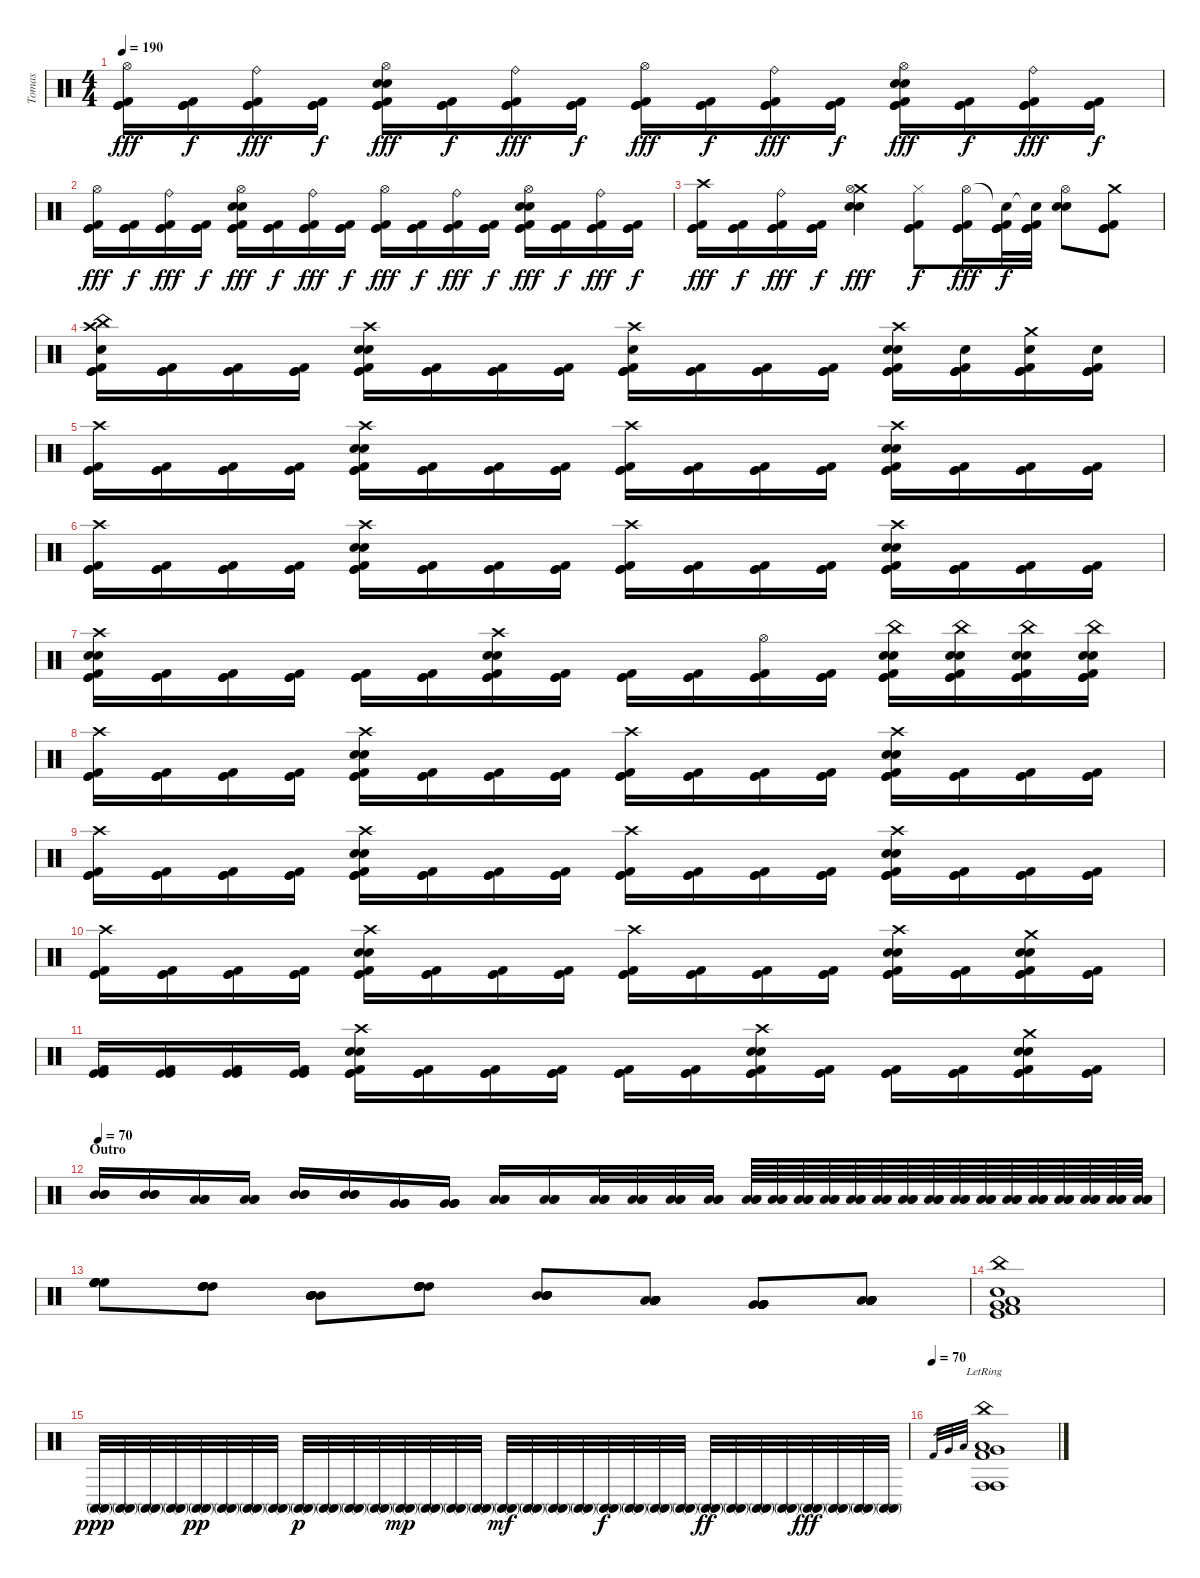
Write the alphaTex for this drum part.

\track ("Tomas" "Tomas") {instrument percussion}
\staff {score}
\articulation defaults
\ts (4 4)
\tempo 190
\clef neutral
\ks c
("Hi-Hat (open)" "Kick (hit)" "Kick (hit)" "Kick (hit) 2").16{dy fff} ("Kick (hit)" "Kick (hit)" "Kick (hit) 2").16{dy f} ("Ride (bell)" "Kick (hit)" "Kick (hit)" "Kick (hit) 2").16{dy fff} ("Kick (hit)" "Kick (hit)" "Kick (hit) 2").16{dy f} ("Hi-Hat (open)" "Kick (hit)" "Electric Snare (hit)" "Electric Snare (hit)" "Kick (hit)" "Kick (hit) 2").16{dy fff} ("Kick (hit)" "Kick (hit)" "Kick (hit) 2").16{dy f} ("Ride (bell)" "Kick (hit)" "Kick (hit)" "Kick (hit) 2").16{dy fff} ("Kick (hit)" "Kick (hit)" "Kick (hit) 2").16{dy f} ("Hi-Hat (open)" "Kick (hit)" "Kick (hit)" "Kick (hit) 2").16{dy fff} ("Kick (hit)" "Kick (hit)" "Kick (hit) 2").16{dy f} ("Ride (bell)" "Kick (hit)" "Kick (hit)" "Kick (hit) 2").16{dy fff} ("Kick (hit)" "Kick (hit)" "Kick (hit) 2").16{dy f} ("Hi-Hat (open)" "Kick (hit)" "Electric Snare (hit)" "Electric Snare (hit)" "Kick (hit)" "Kick (hit) 2").16{dy fff} ("Kick (hit)" "Kick (hit)" "Kick (hit) 2").16{dy f} ("Ride (bell)" "Kick (hit)" "Kick (hit)" "Kick (hit) 2").16{dy fff} ("Kick (hit)" "Kick (hit)" "Kick (hit) 2").16{dy f} |
("Hi-Hat (open)" "Kick (hit)" "Kick (hit)" "Kick (hit) 2").16{dy fff} ("Kick (hit)" "Kick (hit)" "Kick (hit) 2").16{dy f} ("Ride (bell)" "Kick (hit)" "Kick (hit)" "Kick (hit) 2").16{dy fff} ("Kick (hit)" "Kick (hit)" "Kick (hit) 2").16{dy f} ("Hi-Hat (open)" "Kick (hit)" "Electric Snare (hit)" "Electric Snare (hit)" "Kick (hit)" "Kick (hit) 2").16{dy fff} ("Kick (hit)" "Kick (hit)" "Kick (hit) 2").16{dy f} ("Ride (bell)" "Kick (hit)" "Kick (hit)" "Kick (hit) 2").16{dy fff} ("Kick (hit)" "Kick (hit)" "Kick (hit) 2").16{dy f} ("Hi-Hat (open)" "Kick (hit)" "Kick (hit)" "Kick (hit) 2").16{dy fff} ("Kick (hit)" "Kick (hit)" "Kick (hit) 2").16{dy f} ("Ride (bell)" "Kick (hit)" "Kick (hit)" "Kick (hit) 2").16{dy fff} ("Kick (hit)" "Kick (hit)" "Kick (hit) 2").16{dy f} ("Hi-Hat (open)" "Kick (hit)" "Electric Snare (hit)" "Electric Snare (hit)" "Kick (hit)" "Kick (hit) 2").16{dy fff} ("Kick (hit)" "Kick (hit)" "Kick (hit) 2").16{dy f} ("Ride (bell)" "Kick (hit)" "Kick (hit)" "Kick (hit) 2").16{dy fff} ("Kick (hit)" "Kick (hit)" "Kick (hit) 2").16{dy f} |
("Crash high (hit)" "Kick (hit)" "Kick (hit)" "Kick (hit) 2").16{dy fff} ("Kick (hit)" "Kick (hit)" "Kick (hit) 2").16{dy f} ("Ride (bell)" "Kick (hit)" "Kick (hit)" "Kick (hit) 2").16{dy fff} ("Kick (hit)" "Kick (hit)" "Kick (hit) 2").16{dy f} ("Crash medium (hit)" "Hi-Hat (open)" "Electric Snare (hit)" "Electric Snare (hit)").4{dy fff} ("Hi-Hat (closed)" "Kick (hit)" "Kick (hit)" "Kick (hit) 2").8{dy f} ("Hi-Hat (open)" "Kick (hit)" "Kick (hit)" "Kick (hit) 2").16{dy fff} ("Snare (hit)"{t} "Kick (hit)" "Kick (hit)" "Kick (hit)" "Kick (hit) 2").32{dy f} ("Snare (hit)"{t} "Kick (hit)" "Kick (hit)" "Kick (hit)" "Kick (hit) 2").32 ("Hi-Hat (open)" "Electric Snare (hit)" "Electric Snare (hit)").8 ("Crash medium (hit)" "Kick (hit)" "Kick (hit)" "Kick (hit) 2").8 |
("Crash high (hit)" "China (hit)" "Electric Snare (hit)" "Kick (hit)" "Kick (hit)" "Kick (hit) 2").16 ("Kick (hit)" "Kick (hit)" "Kick (hit) 2").16 ("Kick (hit)" "Kick (hit)" "Kick (hit) 2").16 ("Kick (hit)" "Kick (hit)" "Kick (hit) 2").16 ("Crash high (hit)" "Kick (hit)" "Electric Snare (hit)" "Electric Snare (hit)" "Kick (hit)" "Kick (hit) 2").16 ("Kick (hit)" "Kick (hit)" "Kick (hit) 2").16 ("Kick (hit)" "Kick (hit)" "Kick (hit) 2").16 ("Kick (hit)" "Kick (hit)" "Kick (hit) 2").16 ("Crash high (hit)" "Kick (hit)" "Electric Snare (hit)" "Kick (hit)" "Kick (hit)" "Kick (hit) 2").16 ("Kick (hit)" "Kick (hit)" "Kick (hit) 2").16 ("Kick (hit)" "Kick (hit)" "Kick (hit) 2").16 ("Kick (hit)" "Kick (hit)" "Kick (hit) 2").16 ("Crash high (hit)" "Kick (hit)" "Electric Snare (hit)" "Electric Snare (hit)" "Kick (hit)" "Kick (hit) 2").16 ("Kick (hit)" "Electric Snare (hit)" "Kick (hit)" "Kick (hit)" "Kick (hit) 2").16 ("Crash medium (hit)" "Kick (hit)" "Electric Snare (hit)" "Kick (hit)" "Kick (hit)" "Kick (hit) 2").16 ("Kick (hit)" "Electric Snare (hit)" "Kick (hit)" "Kick (hit)" "Kick (hit) 2").16 |
("Crash high (hit)" "Kick (hit)" "Kick (hit)" "Kick (hit) 2").16 ("Kick (hit)" "Kick (hit)" "Kick (hit) 2").16 ("Kick (hit)" "Kick (hit)" "Kick (hit) 2").16 ("Kick (hit)" "Kick (hit)" "Kick (hit) 2").16 ("Crash high (hit)" "Kick (hit)" "Electric Snare (hit)" "Electric Snare (hit)" "Kick (hit)" "Kick (hit) 2").16 ("Kick (hit)" "Kick (hit)" "Kick (hit) 2").16 ("Kick (hit)" "Kick (hit)" "Kick (hit) 2").16 ("Kick (hit)" "Kick (hit)" "Kick (hit) 2").16 ("Crash high (hit)" "Kick (hit)" "Kick (hit)" "Kick (hit) 2").16 ("Kick (hit)" "Kick (hit)" "Kick (hit) 2").16 ("Kick (hit)" "Kick (hit)" "Kick (hit) 2").16 ("Kick (hit)" "Kick (hit)" "Kick (hit) 2").16 ("Crash high (hit)" "Kick (hit)" "Electric Snare (hit)" "Electric Snare (hit)" "Kick (hit)" "Kick (hit) 2").16 ("Kick (hit)" "Kick (hit)" "Kick (hit) 2").16 ("Kick (hit)" "Kick (hit)" "Kick (hit) 2").16 ("Kick (hit)" "Kick (hit)" "Kick (hit) 2").16 |
("Crash high (hit)" "Kick (hit)" "Kick (hit)" "Kick (hit) 2").16 ("Kick (hit)" "Kick (hit)" "Kick (hit) 2").16 ("Kick (hit)" "Kick (hit)" "Kick (hit) 2").16 ("Kick (hit)" "Kick (hit)" "Kick (hit) 2").16 ("Crash high (hit)" "Kick (hit)" "Electric Snare (hit)" "Electric Snare (hit)" "Kick (hit)" "Kick (hit) 2").16 ("Kick (hit)" "Kick (hit)" "Kick (hit) 2").16 ("Kick (hit)" "Kick (hit)" "Kick (hit) 2").16 ("Kick (hit)" "Kick (hit)" "Kick (hit) 2").16 ("Crash high (hit)" "Kick (hit)" "Kick (hit)" "Kick (hit) 2").16 ("Kick (hit)" "Kick (hit)" "Kick (hit) 2").16 ("Kick (hit)" "Kick (hit)" "Kick (hit) 2").16 ("Kick (hit)" "Kick (hit)" "Kick (hit) 2").16 ("Crash high (hit)" "Kick (hit)" "Electric Snare (hit)" "Electric Snare (hit)" "Kick (hit)" "Kick (hit) 2").16 ("Kick (hit)" "Kick (hit)" "Kick (hit) 2").16 ("Kick (hit)" "Kick (hit)" "Kick (hit) 2").16 ("Kick (hit)" "Kick (hit)" "Kick (hit) 2").16 |
("Crash high (hit)" "Kick (hit)" "Electric Snare (hit)" "Electric Snare (hit)" "Kick (hit)" "Kick (hit) 2").16 ("Kick (hit)" "Kick (hit)" "Kick (hit) 2").16 ("Kick (hit)" "Kick (hit)" "Kick (hit) 2").16 ("Kick (hit)" "Kick (hit)" "Kick (hit) 2").16 ("Kick (hit)" "Kick (hit)" "Kick (hit) 2").16 ("Kick (hit)" "Kick (hit)" "Kick (hit) 2").16 ("Crash high (hit)" "Kick (hit)" "Electric Snare (hit)" "Electric Snare (hit)" "Kick (hit)" "Kick (hit) 2").16 ("Kick (hit)" "Kick (hit)" "Kick (hit) 2").16 ("Kick (hit)" "Kick (hit)" "Kick (hit) 2").16 ("Kick (hit)" "Kick (hit)" "Kick (hit) 2").16 ("Hi-Hat (open)" "Kick (hit)" "Kick (hit)" "Kick (hit) 2").16 ("Kick (hit)" "Kick (hit)" "Kick (hit) 2").16 ("China (hit)" "Kick (hit)" "Electric Snare (hit)" "Electric Snare (hit)" "Kick (hit)" "Kick (hit) 2").16 ("China (hit)" "Kick (hit)" "Electric Snare (hit)" "Electric Snare (hit)" "Kick (hit)" "Kick (hit) 2").16 ("China (hit)" "Kick (hit)" "Electric Snare (hit)" "Electric Snare (hit)" "Kick (hit)" "Kick (hit) 2").16 ("China (hit)" "Kick (hit)" "Electric Snare (hit)" "Electric Snare (hit)" "Kick (hit)" "Kick (hit) 2").16 |
("Crash high (hit)" "Kick (hit)" "Kick (hit)" "Kick (hit) 2").16 ("Kick (hit)" "Kick (hit)" "Kick (hit) 2").16 ("Kick (hit)" "Kick (hit)" "Kick (hit) 2").16 ("Kick (hit)" "Kick (hit)" "Kick (hit) 2").16 ("Crash high (hit)" "Kick (hit)" "Electric Snare (hit)" "Electric Snare (hit)" "Kick (hit)" "Kick (hit) 2").16 ("Kick (hit)" "Kick (hit)" "Kick (hit) 2").16 ("Kick (hit)" "Kick (hit)" "Kick (hit) 2").16 ("Kick (hit)" "Kick (hit)" "Kick (hit) 2").16 ("Crash high (hit)" "Kick (hit)" "Kick (hit)" "Kick (hit) 2").16 ("Kick (hit)" "Kick (hit)" "Kick (hit) 2").16 ("Kick (hit)" "Kick (hit)" "Kick (hit) 2").16 ("Kick (hit)" "Kick (hit)" "Kick (hit) 2").16 ("Crash high (hit)" "Kick (hit)" "Electric Snare (hit)" "Electric Snare (hit)" "Kick (hit)" "Kick (hit) 2").16 ("Kick (hit)" "Kick (hit)" "Kick (hit) 2").16 ("Kick (hit)" "Kick (hit)" "Kick (hit) 2").16 ("Kick (hit)" "Kick (hit)" "Kick (hit) 2").16 |
("Crash high (hit)" "Kick (hit)" "Kick (hit)" "Kick (hit) 2").16 ("Kick (hit)" "Kick (hit)" "Kick (hit) 2").16 ("Kick (hit)" "Kick (hit)" "Kick (hit) 2").16 ("Kick (hit)" "Kick (hit)" "Kick (hit) 2").16 ("Crash high (hit)" "Kick (hit)" "Electric Snare (hit)" "Electric Snare (hit)" "Kick (hit)" "Kick (hit) 2").16 ("Kick (hit)" "Kick (hit)" "Kick (hit) 2").16 ("Kick (hit)" "Kick (hit)" "Kick (hit) 2").16 ("Kick (hit)" "Kick (hit)" "Kick (hit) 2").16 ("Crash high (hit)" "Kick (hit)" "Kick (hit)" "Kick (hit) 2").16 ("Kick (hit)" "Kick (hit)" "Kick (hit) 2").16 ("Kick (hit)" "Kick (hit)" "Kick (hit) 2").16 ("Kick (hit)" "Kick (hit)" "Kick (hit) 2").16 ("Crash high (hit)" "Kick (hit)" "Electric Snare (hit)" "Electric Snare (hit)" "Kick (hit)" "Kick (hit) 2").16 ("Kick (hit)" "Kick (hit)" "Kick (hit) 2").16 ("Kick (hit)" "Kick (hit)" "Kick (hit) 2").16 ("Kick (hit)" "Kick (hit)" "Kick (hit) 2").16 |
("Crash high (hit)" "Kick (hit)" "Kick (hit)" "Kick (hit) 2").16 ("Kick (hit)" "Kick (hit)" "Kick (hit) 2").16 ("Kick (hit)" "Kick (hit)" "Kick (hit) 2").16 ("Kick (hit)" "Kick (hit)" "Kick (hit) 2").16 ("Crash high (hit)" "Kick (hit)" "Electric Snare (hit)" "Electric Snare (hit)" "Kick (hit)" "Kick (hit) 2").16 ("Kick (hit)" "Kick (hit)" "Kick (hit) 2").16 ("Kick (hit)" "Kick (hit)" "Kick (hit) 2").16 ("Kick (hit)" "Kick (hit)" "Kick (hit) 2").16 ("Crash high (hit)" "Kick (hit)" "Kick (hit)" "Kick (hit) 2").16 ("Kick (hit)" "Kick (hit)" "Kick (hit) 2").16 ("Kick (hit)" "Kick (hit)" "Kick (hit) 2").16 ("Kick (hit)" "Kick (hit)" "Kick (hit) 2").16 ("Crash high (hit)" "Kick (hit)" "Electric Snare (hit)" "Electric Snare (hit)" "Kick (hit)" "Kick (hit) 2").16 ("Kick (hit)" "Kick (hit)" "Kick (hit) 2").16 ("Crash medium (hit)" "Kick (hit)" "Electric Snare (hit)" "Electric Snare (hit)" "Kick (hit)" "Kick (hit) 2").16 ("Kick (hit)" "Kick (hit)" "Kick (hit) 2").16 |
("Kick (hit)" "Kick (hit)" "Kick (hit) 2").16 ("Kick (hit)" "Kick (hit)" "Kick (hit) 2").16 ("Kick (hit)" "Kick (hit)" "Kick (hit) 2").16 ("Kick (hit)" "Kick (hit)" "Kick (hit) 2").16 ("Crash high (hit)" "Kick (hit)" "Electric Snare (hit)" "Electric Snare (hit)" "Kick (hit)" "Kick (hit) 2").16 ("Kick (hit)" "Kick (hit)" "Kick (hit) 2").16 ("Kick (hit)" "Kick (hit)" "Kick (hit) 2").16 ("Kick (hit)" "Kick (hit)" "Kick (hit) 2").16 ("Kick (hit)" "Kick (hit)" "Kick (hit) 2").16 ("Kick (hit)" "Kick (hit)" "Kick (hit) 2").16 ("Crash high (hit)" "Kick (hit)" "Electric Snare (hit)" "Electric Snare (hit)" "Kick (hit)" "Kick (hit) 2").16 ("Kick (hit)" "Kick (hit)" "Kick (hit) 2").16 ("Kick (hit)" "Kick (hit)" "Kick (hit) 2").16 ("Kick (hit)" "Kick (hit)" "Kick (hit) 2").16 ("Crash medium (hit)" "Kick (hit)" "Electric Snare (hit)" "Electric Snare (hit)" "Kick (hit)" "Kick (hit) 2").16 ("Kick (hit)" "Kick (hit)" "Kick (hit) 2").16 |
\section ("" "Outro")
\tempo 70
("Mid Tom (hit)" "Mid Tom (hit)" "Mid Tom (hit)").16 ("Mid Tom (hit)" "Mid Tom (hit)" "Mid Tom (hit)").16 ("Low Tom (hit)" "Low Tom (hit)" "Low Tom (hit)").16 ("Low Tom (hit)" "Low Tom (hit)" "Low Tom (hit)").16 ("Mid Tom (hit)" "Mid Tom (hit)" "Mid Tom (hit)").16 ("Mid Tom (hit)" "Mid Tom (hit)" "Mid Tom (hit)").16 ("Very Low Tom (hit)" "Very Low Tom (hit)" "Very Low Tom (hit)").16 ("Very Low Tom (hit)" "Very Low Tom (hit)" "Very Low Tom (hit)").16 ("Low Floor Tom (hit)" "Low Floor Tom (hit)" "Low Floor Tom (hit)").16 ("Low Floor Tom (hit)" "Low Floor Tom (hit)" "Low Floor Tom (hit)").16 ("Low Floor Tom (hit)" "Low Floor Tom (hit)" "Low Floor Tom (hit)").32 ("Low Floor Tom (hit)" "Low Floor Tom (hit)" "Low Floor Tom (hit)").32 ("Low Floor Tom (hit)" "Low Floor Tom (hit)" "Low Floor Tom (hit)").32 ("Low Floor Tom (hit)" "Low Floor Tom (hit)" "Low Floor Tom (hit)").32 ("Low Floor Tom (hit)" "Low Floor Tom (hit)" "Low Floor Tom (hit)").64 ("Low Floor Tom (hit)" "Low Floor Tom (hit)" "Low Floor Tom (hit)").64 ("Low Floor Tom (hit)" "Low Floor Tom (hit)" "Low Floor Tom (hit)").64 ("Low Floor Tom (hit)" "Low Floor Tom (hit)" "Low Floor Tom (hit)").64 ("Low Floor Tom (hit)" "Low Floor Tom (hit)" "Low Floor Tom (hit)").64 ("Low Floor Tom (hit)" "Low Floor Tom (hit)" "Low Floor Tom (hit)").64 ("Low Floor Tom (hit)" "Low Floor Tom (hit)" "Low Floor Tom (hit)").64 ("Low Floor Tom (hit)" "Low Floor Tom (hit)" "Low Floor Tom (hit)").64 ("Low Floor Tom (hit)" "Low Floor Tom (hit)" "Low Floor Tom (hit)").64 ("Low Floor Tom (hit)" "Low Floor Tom (hit)" "Low Floor Tom (hit)").64 ("Low Floor Tom (hit)" "Low Floor Tom (hit)" "Low Floor Tom (hit)").64 ("Low Floor Tom (hit)" "Low Floor Tom (hit)" "Low Floor Tom (hit)").64 ("Low Floor Tom (hit)" "Low Floor Tom (hit)" "Low Floor Tom (hit)").64 ("Low Floor Tom (hit)" "Low Floor Tom (hit)" "Low Floor Tom (hit)").64 ("Low Floor Tom (hit)" "Low Floor Tom (hit)" "Low Floor Tom (hit)").64 ("Low Floor Tom (hit)" "Low Floor Tom (hit)" "Low Floor Tom (hit)").64 |
("High Floor Tom (hit)" "High Floor Tom (hit)" "High Floor Tom (hit)" "High Floor Tom (hit)" "High Floor Tom (hit)" "High Floor Tom (hit)").8 ("High Tom (hit)" "High Tom (hit)" "High Tom (hit)" "High Tom (hit)" "High Tom (hit)" "High Tom (hit)").8 ("Mid Tom (hit)" "Mid Tom (hit)" "Mid Tom (hit)" "Mid Tom (hit)" "Mid Tom (hit)" "Mid Tom (hit)").8 ("High Tom (hit)" "High Tom (hit)" "High Tom (hit)" "High Tom (hit)" "High Tom (hit)" "High Tom (hit)").8 ("Mid Tom (hit)" "Mid Tom (hit)" "Mid Tom (hit)" "Mid Tom (hit)" "Mid Tom (hit)" "Mid Tom (hit)").8 ("Low Tom (hit)" "Low Tom (hit)" "Low Tom (hit)" "Low Tom (hit)" "Low Tom (hit)" "Low Tom (hit)").8 ("Very Low Tom (hit)" "Very Low Tom (hit)" "Very Low Tom (hit)" "Very Low Tom (hit)" "Very Low Tom (hit)" "Very Low Tom (hit)").8 ("Low Floor Tom (hit)" "Low Floor Tom (hit)" "Low Floor Tom (hit)" "Low Floor Tom (hit)" "Low Floor Tom (hit)" "Low Floor Tom (hit)").8 |
("Kick (hit)" "Kick (hit) 2" "Electric Snare (hit)" "Very Low Tom (hit)" "Low Floor Tom (hit)" "China (hit)").1 |
("Conga high (mute)" "Conga high (mute)").32{dy ppp} ("Conga high (mute)" "Conga high (mute)").32 ("Conga high (mute)" "Conga high (mute)").32 ("Conga high (mute)" "Conga high (mute)").32 ("Conga high (mute)" "Conga high (mute)").32{dy pp} ("Conga high (mute)" "Conga high (mute)").32 ("Conga high (mute)" "Conga high (mute)").32 ("Conga high (mute)" "Conga high (mute)").32 ("Conga high (mute)" "Conga high (mute)").32{dy p} ("Conga high (mute)" "Conga high (mute)").32 ("Conga high (mute)" "Conga high (mute)").32 ("Conga high (mute)" "Conga high (mute)").32 ("Conga high (mute)" "Conga high (mute)").32{dy mp} ("Conga high (mute)" "Conga high (mute)").32 ("Conga high (mute)" "Conga high (mute)").32 ("Conga high (mute)" "Conga high (mute)").32 ("Conga high (mute)" "Conga high (mute)").32{dy mf} ("Conga high (mute)" "Conga high (mute)").32 ("Conga high (mute)" "Conga high (mute)").32 ("Conga high (mute)" "Conga high (mute)").32 ("Conga high (mute)" "Conga high (mute)").32{dy f} ("Conga high (mute)" "Conga high (mute)").32 ("Conga high (mute)" "Conga high (mute)").32 ("Conga high (mute)" "Conga high (mute)").32 ("Conga high (mute)" "Conga high (mute)").32{dy ff} ("Conga high (mute)" "Conga high (mute)").32 ("Conga high (mute)" "Conga high (mute)").32 ("Conga high (mute)" "Conga high (mute)").32 ("Conga high (mute)" "Conga high (mute)").32{dy fff} ("Conga high (mute)" "Conga high (mute)").32 ("Conga high (mute)" "Conga high (mute)").32 ("Conga high (mute)" "Conga high (mute)").32 |
\tempo (70)
"Kick (hit) 2".32{gr} "Very Low Tom (hit)".32{gr} "Low Floor Tom (hit)".32{gr} ("Kick (hit) 2" "Very Low Tom (hit)" "Low Floor Tom (hit)" "Conga high (hit)" "China (hit)"{lr} "Conga high (hit)"{lr}).1
